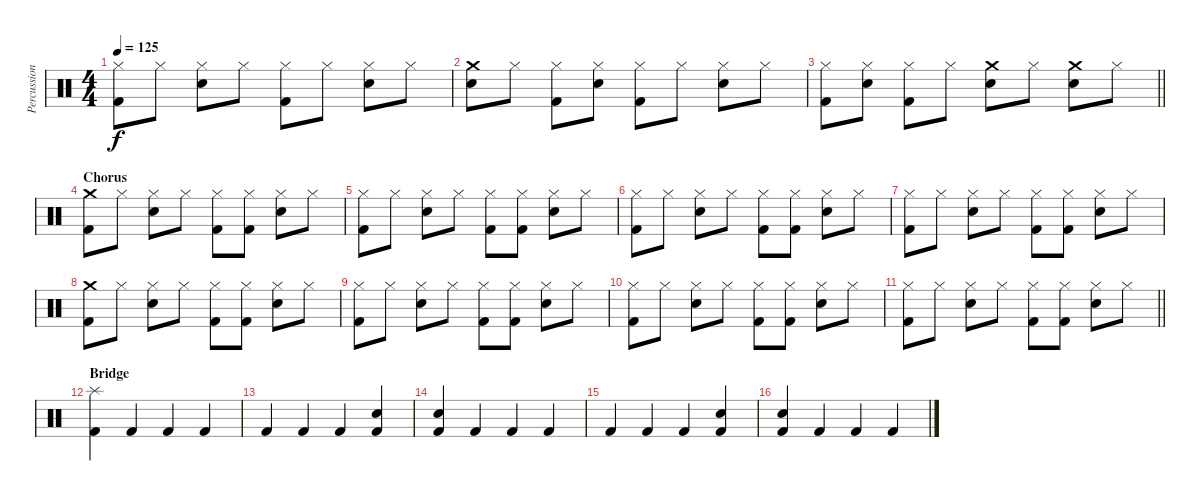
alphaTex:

\track ("Percussion" "Percussion") {instrument percussion}
\staff {score}
\articulation defaults
\ts (4 4)
\tempo 125
\clef neutral
\ks c
("Hi-Hat (closed)" "Kick (hit) 2").8{dy f} "Hi-Hat (closed)".8 ("Hi-Hat (closed)" "Snare (hit) 2").8 "Hi-Hat (closed)".8 ("Hi-Hat (closed)" "Kick (hit) 2").8 "Hi-Hat (closed)".8 ("Hi-Hat (closed)" "Snare (hit) 2").8 "Hi-Hat (closed)".8 |
("Crash medium (hit)" "Snare (hit) 2").8 "Hi-Hat (closed)".8 ("Hi-Hat (closed)" "Kick (hit) 2").8 ("Hi-Hat (closed)" "Snare (hit) 2").8 ("Hi-Hat (closed)" "Kick (hit) 2").8 "Hi-Hat (closed)".8 ("Hi-Hat (closed)" "Snare (hit) 2").8 "Hi-Hat (closed)".8 |
\barLineRight lightlight
("Hi-Hat (closed)" "Kick (hit) 2").8 ("Hi-Hat (closed)" "Snare (hit) 2").8 ("Hi-Hat (closed)" "Kick (hit) 2").8 "Hi-Hat (closed)".8 ("Crash medium (hit)" "Snare (hit) 2").8 "Hi-Hat (closed)".8 ("Crash medium (hit)" "Snare (hit) 2").8 "Hi-Hat (closed)".8 |
\section ("" "Chorus")
("Crash medium (hit)" "Kick (hit) 2").8 "Hi-Hat (closed)".8 ("Hi-Hat (closed)" "Snare (hit) 2").8 "Hi-Hat (closed)".8 ("Hi-Hat (closed)" "Kick (hit) 2").8 ("Hi-Hat (closed)" "Kick (hit) 2").8 ("Hi-Hat (closed)" "Snare (hit) 2").8 "Hi-Hat (closed)".8 |
("Hi-Hat (closed)" "Kick (hit) 2").8 "Hi-Hat (closed)".8 ("Hi-Hat (closed)" "Snare (hit) 2").8 "Hi-Hat (closed)".8 ("Hi-Hat (closed)" "Kick (hit) 2").8 ("Hi-Hat (closed)" "Kick (hit) 2").8 ("Hi-Hat (closed)" "Snare (hit) 2").8 "Hi-Hat (closed)".8 |
("Hi-Hat (closed)" "Kick (hit) 2").8 "Hi-Hat (closed)".8 ("Hi-Hat (closed)" "Snare (hit) 2").8 "Hi-Hat (closed)".8 ("Hi-Hat (closed)" "Kick (hit) 2").8 ("Hi-Hat (closed)" "Kick (hit) 2").8 ("Hi-Hat (closed)" "Snare (hit) 2").8 "Hi-Hat (closed)".8 |
("Hi-Hat (closed)" "Kick (hit) 2").8 "Hi-Hat (closed)".8 ("Hi-Hat (closed)" "Snare (hit) 2").8 "Hi-Hat (closed)".8 ("Hi-Hat (closed)" "Kick (hit) 2").8 ("Hi-Hat (closed)" "Kick (hit) 2").8 ("Hi-Hat (closed)" "Snare (hit) 2").8 "Hi-Hat (closed)".8 |
("Crash medium (hit)" "Kick (hit) 2").8 "Hi-Hat (closed)".8 ("Hi-Hat (closed)" "Snare (hit) 2").8 "Hi-Hat (closed)".8 ("Hi-Hat (closed)" "Kick (hit) 2").8 ("Hi-Hat (closed)" "Kick (hit) 2").8 ("Hi-Hat (closed)" "Snare (hit) 2").8 "Hi-Hat (closed)".8 |
("Hi-Hat (closed)" "Kick (hit) 2").8 "Hi-Hat (closed)".8 ("Hi-Hat (closed)" "Snare (hit) 2").8 "Hi-Hat (closed)".8 ("Hi-Hat (closed)" "Kick (hit) 2").8 ("Hi-Hat (closed)" "Kick (hit) 2").8 ("Hi-Hat (closed)" "Snare (hit) 2").8 "Hi-Hat (closed)".8 |
("Hi-Hat (closed)" "Kick (hit) 2").8 "Hi-Hat (closed)".8 ("Hi-Hat (closed)" "Snare (hit) 2").8 "Hi-Hat (closed)".8 ("Hi-Hat (closed)" "Kick (hit) 2").8 ("Hi-Hat (closed)" "Kick (hit) 2").8 ("Hi-Hat (closed)" "Snare (hit) 2").8 "Hi-Hat (closed)".8 |
\barLineRight lightlight
("Hi-Hat (closed)" "Kick (hit) 2").8 "Hi-Hat (closed)".8 ("Hi-Hat (closed)" "Snare (hit) 2").8 "Hi-Hat (closed)".8 ("Hi-Hat (closed)" "Kick (hit) 2").8 ("Hi-Hat (closed)" "Kick (hit) 2").8 ("Hi-Hat (closed)" "Snare (hit) 2").8 "Hi-Hat (closed)".8 |
\section ("" "Bridge")
("Splash (hit)" "Kick (hit) 2").4 "Kick (hit) 2".4 "Kick (hit) 2".4 "Kick (hit) 2".4 |
"Kick (hit) 2".4 "Kick (hit) 2".4 "Kick (hit) 2".4 ("Snare (hit) 2" "Kick (hit) 2").4 |
("Snare (hit) 2" "Kick (hit) 2").4 "Kick (hit) 2".4 "Kick (hit) 2".4 "Kick (hit) 2".4 |
"Kick (hit) 2".4 "Kick (hit) 2".4 "Kick (hit) 2".4 ("Snare (hit) 2" "Kick (hit) 2").4 |
("Snare (hit) 2" "Kick (hit) 2").4 "Kick (hit) 2".4 "Kick (hit) 2".4 "Kick (hit) 2".4
